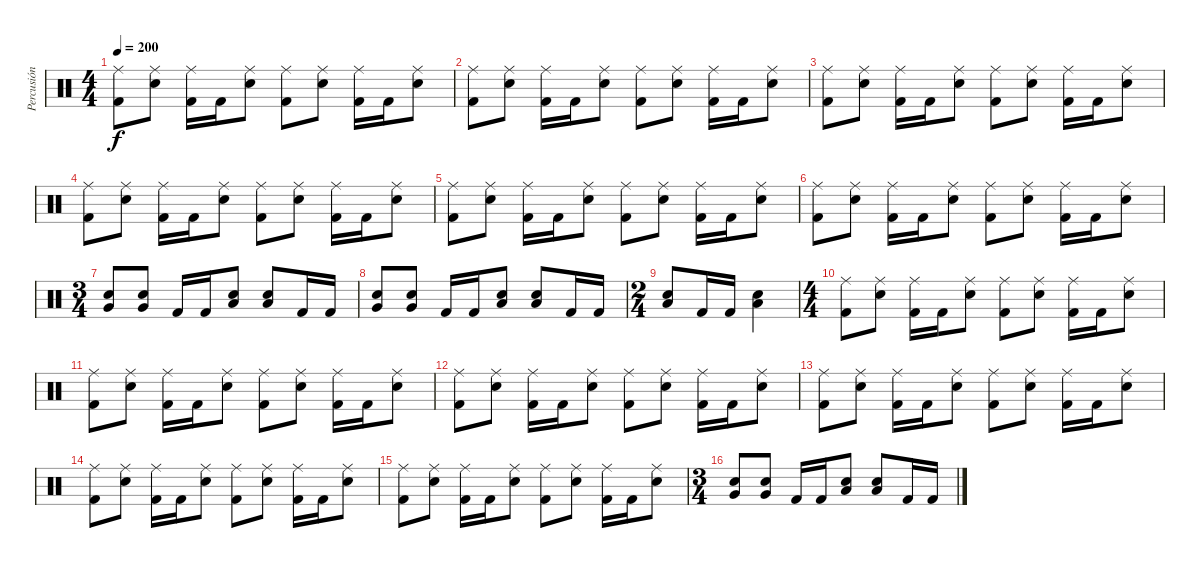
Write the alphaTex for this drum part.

\track ("Percusión" "Percusión") {instrument percussion}
\staff {score}
\articulation defaults
\ts (4 4)
\tempo 200
\clef neutral
\ks c
("Ride (middle)" "Kick (hit) 2").8{dy f} ("Ride (middle)" "Electric Snare (hit)").8 ("Ride (middle)" "Kick (hit) 2").16 "Kick (hit) 2".16 ("Ride (middle)" "Electric Snare (hit)").8 ("Ride (middle)" "Kick (hit) 2").8 ("Ride (middle)" "Electric Snare (hit)").8 ("Ride (middle)" "Kick (hit) 2").16 "Kick (hit) 2".16 ("Ride (middle)" "Electric Snare (hit)").8 |
("Ride (middle)" "Kick (hit) 2").8 ("Ride (middle)" "Electric Snare (hit)").8 ("Ride (middle)" "Kick (hit) 2").16 "Kick (hit) 2".16 ("Ride (middle)" "Electric Snare (hit)").8 ("Ride (middle)" "Kick (hit) 2").8 ("Ride (middle)" "Electric Snare (hit)").8 ("Ride (middle)" "Kick (hit) 2").16 "Kick (hit) 2".16 ("Ride (middle)" "Electric Snare (hit)").8 |
("Ride (middle)" "Kick (hit) 2").8 ("Ride (middle)" "Electric Snare (hit)").8 ("Ride (middle)" "Kick (hit) 2").16 "Kick (hit) 2".16 ("Ride (middle)" "Electric Snare (hit)").8 ("Ride (middle)" "Kick (hit) 2").8 ("Ride (middle)" "Electric Snare (hit)").8 ("Ride (middle)" "Kick (hit) 2").16 "Kick (hit) 2".16 ("Ride (middle)" "Electric Snare (hit)").8 |
("Ride (middle)" "Kick (hit) 2").8 ("Ride (middle)" "Electric Snare (hit)").8 ("Ride (middle)" "Kick (hit) 2").16 "Kick (hit) 2".16 ("Ride (middle)" "Electric Snare (hit)").8 ("Ride (middle)" "Kick (hit) 2").8 ("Ride (middle)" "Electric Snare (hit)").8 ("Ride (middle)" "Kick (hit) 2").16 "Kick (hit) 2".16 ("Ride (middle)" "Electric Snare (hit)").8 |
("Ride (middle)" "Kick (hit) 2").8 ("Ride (middle)" "Electric Snare (hit)").8 ("Ride (middle)" "Kick (hit) 2").16 "Kick (hit) 2".16 ("Ride (middle)" "Electric Snare (hit)").8 ("Ride (middle)" "Kick (hit) 2").8 ("Ride (middle)" "Electric Snare (hit)").8 ("Ride (middle)" "Kick (hit) 2").16 "Kick (hit) 2".16 ("Ride (middle)" "Electric Snare (hit)").8 |
("Ride (middle)" "Kick (hit) 2").8 ("Ride (middle)" "Electric Snare (hit)").8 ("Ride (middle)" "Kick (hit) 2").16 "Kick (hit) 2".16 ("Ride (middle)" "Electric Snare (hit)").8 ("Ride (middle)" "Kick (hit) 2").8 ("Ride (middle)" "Electric Snare (hit)").8 ("Ride (middle)" "Kick (hit) 2").16 "Kick (hit) 2".16 ("Ride (middle)" "Electric Snare (hit)").8 |
\ts (3 4)
("Very Low Tom (hit)" "Electric Snare (hit)").8 ("Very Low Tom (hit)" "Electric Snare (hit)").8 "Kick (hit) 2".16 "Kick (hit) 2".16 ("Low Tom (hit)" "Electric Snare (hit)").8 ("Low Tom (hit)" "Electric Snare (hit)").8 "Kick (hit) 2".16 "Kick (hit) 2".16 |
("Very Low Tom (hit)" "Electric Snare (hit)").8 ("Very Low Tom (hit)" "Electric Snare (hit)").8 "Kick (hit) 2".16 "Kick (hit) 2".16 ("Low Tom (hit)" "Electric Snare (hit)").8 ("Low Tom (hit)" "Electric Snare (hit)").8 "Kick (hit) 2".16 "Kick (hit) 2".16 |
\ts (2 4)
("Low Tom (hit)" "Electric Snare (hit)").8 "Kick (hit) 2".16 "Kick (hit) 2".16 ("Low Tom (hit)" "Electric Snare (hit)").4 |
\ts (4 4)
("Ride (middle)" "Kick (hit) 2").8 ("Ride (middle)" "Electric Snare (hit)").8 ("Ride (middle)" "Kick (hit) 2").16 "Kick (hit) 2".16 ("Ride (middle)" "Electric Snare (hit)").8 ("Ride (middle)" "Kick (hit) 2").8 ("Ride (middle)" "Electric Snare (hit)").8 ("Ride (middle)" "Kick (hit) 2").16 "Kick (hit) 2".16 ("Ride (middle)" "Electric Snare (hit)").8 |
("Ride (middle)" "Kick (hit) 2").8 ("Ride (middle)" "Electric Snare (hit)").8 ("Ride (middle)" "Kick (hit) 2").16 "Kick (hit) 2".16 ("Ride (middle)" "Electric Snare (hit)").8 ("Ride (middle)" "Kick (hit) 2").8 ("Ride (middle)" "Electric Snare (hit)").8 ("Ride (middle)" "Kick (hit) 2").16 "Kick (hit) 2".16 ("Ride (middle)" "Electric Snare (hit)").8 |
("Ride (middle)" "Kick (hit) 2").8 ("Ride (middle)" "Electric Snare (hit)").8 ("Ride (middle)" "Kick (hit) 2").16 "Kick (hit) 2".16 ("Ride (middle)" "Electric Snare (hit)").8 ("Ride (middle)" "Kick (hit) 2").8 ("Ride (middle)" "Electric Snare (hit)").8 ("Ride (middle)" "Kick (hit) 2").16 "Kick (hit) 2".16 ("Ride (middle)" "Electric Snare (hit)").8 |
("Ride (middle)" "Kick (hit) 2").8 ("Ride (middle)" "Electric Snare (hit)").8 ("Ride (middle)" "Kick (hit) 2").16 "Kick (hit) 2".16 ("Ride (middle)" "Electric Snare (hit)").8 ("Ride (middle)" "Kick (hit) 2").8 ("Ride (middle)" "Electric Snare (hit)").8 ("Ride (middle)" "Kick (hit) 2").16 "Kick (hit) 2".16 ("Ride (middle)" "Electric Snare (hit)").8 |
("Ride (middle)" "Kick (hit) 2").8 ("Ride (middle)" "Electric Snare (hit)").8 ("Ride (middle)" "Kick (hit) 2").16 "Kick (hit) 2".16 ("Ride (middle)" "Electric Snare (hit)").8 ("Ride (middle)" "Kick (hit) 2").8 ("Ride (middle)" "Electric Snare (hit)").8 ("Ride (middle)" "Kick (hit) 2").16 "Kick (hit) 2".16 ("Ride (middle)" "Electric Snare (hit)").8 |
("Ride (middle)" "Kick (hit) 2").8 ("Ride (middle)" "Electric Snare (hit)").8 ("Ride (middle)" "Kick (hit) 2").16 "Kick (hit) 2".16 ("Ride (middle)" "Electric Snare (hit)").8 ("Ride (middle)" "Kick (hit) 2").8 ("Ride (middle)" "Electric Snare (hit)").8 ("Ride (middle)" "Kick (hit) 2").16 "Kick (hit) 2".16 ("Ride (middle)" "Electric Snare (hit)").8 |
\ts (3 4)
("Very Low Tom (hit)" "Electric Snare (hit)").8 ("Very Low Tom (hit)" "Electric Snare (hit)").8 "Kick (hit) 2".16 "Kick (hit) 2".16 ("Low Tom (hit)" "Electric Snare (hit)").8 ("Low Tom (hit)" "Electric Snare (hit)").8 "Kick (hit) 2".16 "Kick (hit) 2".16
